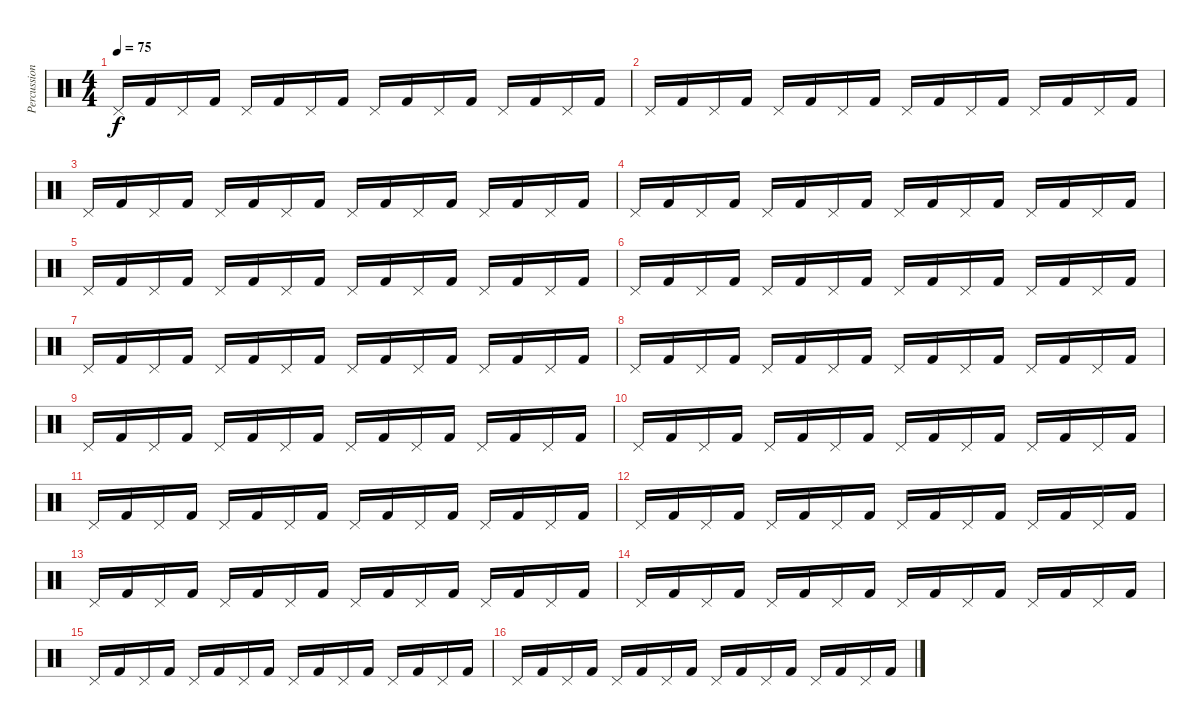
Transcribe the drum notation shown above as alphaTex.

\track ("Percussions" "Percussion") {instrument percussion}
\staff {score}
\articulation defaults
\ts (4 4)
\tempo 75
\clef neutral
\ks c "Pedal Hi-Hat (hit)".16{dy f} "Kick (hit) 2".16 "Pedal Hi-Hat (hit)".16 "Kick (hit) 2".16 "Pedal Hi-Hat (hit)".16 "Kick (hit) 2".16 "Pedal Hi-Hat (hit)".16 "Kick (hit) 2".16 "Pedal Hi-Hat (hit)".16 "Kick (hit) 2".16 "Pedal Hi-Hat (hit)".16 "Kick (hit) 2".16 "Pedal Hi-Hat (hit)".16 "Kick (hit) 2".16 "Pedal Hi-Hat (hit)".16 "Kick (hit) 2".16
|
"Pedal Hi-Hat (hit)".16 "Kick (hit) 2".16 "Pedal Hi-Hat (hit)".16 "Kick (hit) 2".16 "Pedal Hi-Hat (hit)".16 "Kick (hit) 2".16 "Pedal Hi-Hat (hit)".16 "Kick (hit) 2".16 "Pedal Hi-Hat (hit)".16 "Kick (hit) 2".16 "Pedal Hi-Hat (hit)".16 "Kick (hit) 2".16 "Pedal Hi-Hat (hit)".16 "Kick (hit) 2".16 "Pedal Hi-Hat (hit)".16 "Kick (hit) 2".16 |
"Pedal Hi-Hat (hit)".16 "Kick (hit) 2".16 "Pedal Hi-Hat (hit)".16 "Kick (hit) 2".16 "Pedal Hi-Hat (hit)".16 "Kick (hit) 2".16 "Pedal Hi-Hat (hit)".16 "Kick (hit) 2".16 "Pedal Hi-Hat (hit)".16 "Kick (hit) 2".16 "Pedal Hi-Hat (hit)".16 "Kick (hit) 2".16 "Pedal Hi-Hat (hit)".16 "Kick (hit) 2".16 "Pedal Hi-Hat (hit)".16 "Kick (hit) 2".16 |
"Pedal Hi-Hat (hit)".16 "Kick (hit) 2".16 "Pedal Hi-Hat (hit)".16 "Kick (hit) 2".16 "Pedal Hi-Hat (hit)".16 "Kick (hit) 2".16 "Pedal Hi-Hat (hit)".16 "Kick (hit) 2".16 "Pedal Hi-Hat (hit)".16 "Kick (hit) 2".16 "Pedal Hi-Hat (hit)".16 "Kick (hit) 2".16 "Pedal Hi-Hat (hit)".16 "Kick (hit) 2".16 "Pedal Hi-Hat (hit)".16 "Kick (hit) 2".16 |
"Pedal Hi-Hat (hit)".16 "Kick (hit) 2".16 "Pedal Hi-Hat (hit)".16 "Kick (hit) 2".16 "Pedal Hi-Hat (hit)".16 "Kick (hit) 2".16 "Pedal Hi-Hat (hit)".16 "Kick (hit) 2".16 "Pedal Hi-Hat (hit)".16 "Kick (hit) 2".16 "Pedal Hi-Hat (hit)".16 "Kick (hit) 2".16 "Pedal Hi-Hat (hit)".16 "Kick (hit) 2".16 "Pedal Hi-Hat (hit)".16 "Kick (hit) 2".16 |
"Pedal Hi-Hat (hit)".16 "Kick (hit) 2".16 "Pedal Hi-Hat (hit)".16 "Kick (hit) 2".16 "Pedal Hi-Hat (hit)".16 "Kick (hit) 2".16 "Pedal Hi-Hat (hit)".16 "Kick (hit) 2".16 "Pedal Hi-Hat (hit)".16 "Kick (hit) 2".16 "Pedal Hi-Hat (hit)".16 "Kick (hit) 2".16 "Pedal Hi-Hat (hit)".16 "Kick (hit) 2".16 "Pedal Hi-Hat (hit)".16 "Kick (hit) 2".16 |
"Pedal Hi-Hat (hit)".16 "Kick (hit) 2".16 "Pedal Hi-Hat (hit)".16 "Kick (hit) 2".16 "Pedal Hi-Hat (hit)".16 "Kick (hit) 2".16 "Pedal Hi-Hat (hit)".16 "Kick (hit) 2".16 "Pedal Hi-Hat (hit)".16 "Kick (hit) 2".16 "Pedal Hi-Hat (hit)".16 "Kick (hit) 2".16 "Pedal Hi-Hat (hit)".16 "Kick (hit) 2".16 "Pedal Hi-Hat (hit)".16 "Kick (hit) 2".16 |
"Pedal Hi-Hat (hit)".16 "Kick (hit) 2".16 "Pedal Hi-Hat (hit)".16 "Kick (hit) 2".16 "Pedal Hi-Hat (hit)".16 "Kick (hit) 2".16 "Pedal Hi-Hat (hit)".16 "Kick (hit) 2".16 "Pedal Hi-Hat (hit)".16 "Kick (hit) 2".16 "Pedal Hi-Hat (hit)".16 "Kick (hit) 2".16 "Pedal Hi-Hat (hit)".16 "Kick (hit) 2".16 "Pedal Hi-Hat (hit)".16 "Kick (hit) 2".16 |
"Pedal Hi-Hat (hit)".16 "Kick (hit) 2".16 "Pedal Hi-Hat (hit)".16 "Kick (hit) 2".16 "Pedal Hi-Hat (hit)".16 "Kick (hit) 2".16 "Pedal Hi-Hat (hit)".16 "Kick (hit) 2".16 "Pedal Hi-Hat (hit)".16 "Kick (hit) 2".16 "Pedal Hi-Hat (hit)".16 "Kick (hit) 2".16 "Pedal Hi-Hat (hit)".16 "Kick (hit) 2".16 "Pedal Hi-Hat (hit)".16 "Kick (hit) 2".16 |
"Pedal Hi-Hat (hit)".16 "Kick (hit) 2".16 "Pedal Hi-Hat (hit)".16 "Kick (hit) 2".16 "Pedal Hi-Hat (hit)".16 "Kick (hit) 2".16 "Pedal Hi-Hat (hit)".16 "Kick (hit) 2".16 "Pedal Hi-Hat (hit)".16 "Kick (hit) 2".16 "Pedal Hi-Hat (hit)".16 "Kick (hit) 2".16 "Pedal Hi-Hat (hit)".16 "Kick (hit) 2".16 "Pedal Hi-Hat (hit)".16 "Kick (hit) 2".16 |
"Pedal Hi-Hat (hit)".16 "Kick (hit) 2".16 "Pedal Hi-Hat (hit)".16 "Kick (hit) 2".16 "Pedal Hi-Hat (hit)".16 "Kick (hit) 2".16 "Pedal Hi-Hat (hit)".16 "Kick (hit) 2".16 "Pedal Hi-Hat (hit)".16 "Kick (hit) 2".16 "Pedal Hi-Hat (hit)".16 "Kick (hit) 2".16 "Pedal Hi-Hat (hit)".16 "Kick (hit) 2".16 "Pedal Hi-Hat (hit)".16 "Kick (hit) 2".16 |
"Pedal Hi-Hat (hit)".16 "Kick (hit) 2".16 "Pedal Hi-Hat (hit)".16 "Kick (hit) 2".16 "Pedal Hi-Hat (hit)".16 "Kick (hit) 2".16 "Pedal Hi-Hat (hit)".16 "Kick (hit) 2".16 "Pedal Hi-Hat (hit)".16 "Kick (hit) 2".16 "Pedal Hi-Hat (hit)".16 "Kick (hit) 2".16 "Pedal Hi-Hat (hit)".16 "Kick (hit) 2".16 "Pedal Hi-Hat (hit)".16 "Kick (hit) 2".16 |
"Pedal Hi-Hat (hit)".16 "Kick (hit) 2".16 "Pedal Hi-Hat (hit)".16 "Kick (hit) 2".16 "Pedal Hi-Hat (hit)".16 "Kick (hit) 2".16 "Pedal Hi-Hat (hit)".16 "Kick (hit) 2".16 "Pedal Hi-Hat (hit)".16 "Kick (hit) 2".16 "Pedal Hi-Hat (hit)".16 "Kick (hit) 2".16 "Pedal Hi-Hat (hit)".16 "Kick (hit) 2".16 "Pedal Hi-Hat (hit)".16 "Kick (hit) 2".16 |
"Pedal Hi-Hat (hit)".16 "Kick (hit) 2".16 "Pedal Hi-Hat (hit)".16 "Kick (hit) 2".16 "Pedal Hi-Hat (hit)".16 "Kick (hit) 2".16 "Pedal Hi-Hat (hit)".16 "Kick (hit) 2".16 "Pedal Hi-Hat (hit)".16 "Kick (hit) 2".16 "Pedal Hi-Hat (hit)".16 "Kick (hit) 2".16 "Pedal Hi-Hat (hit)".16 "Kick (hit) 2".16 "Pedal Hi-Hat (hit)".16 "Kick (hit) 2".16 |
"Pedal Hi-Hat (hit)".16 "Kick (hit) 2".16 "Pedal Hi-Hat (hit)".16 "Kick (hit) 2".16 "Pedal Hi-Hat (hit)".16 "Kick (hit) 2".16 "Pedal Hi-Hat (hit)".16 "Kick (hit) 2".16 "Pedal Hi-Hat (hit)".16 "Kick (hit) 2".16 "Pedal Hi-Hat (hit)".16 "Kick (hit) 2".16 "Pedal Hi-Hat (hit)".16 "Kick (hit) 2".16 "Pedal Hi-Hat (hit)".16 "Kick (hit) 2".16 |
"Pedal Hi-Hat (hit)".16 "Kick (hit) 2".16 "Pedal Hi-Hat (hit)".16 "Kick (hit) 2".16 "Pedal Hi-Hat (hit)".16 "Kick (hit) 2".16 "Pedal Hi-Hat (hit)".16 "Kick (hit) 2".16 "Pedal Hi-Hat (hit)".16 "Kick (hit) 2".16 "Pedal Hi-Hat (hit)".16 "Kick (hit) 2".16 "Pedal Hi-Hat (hit)".16 "Kick (hit) 2".16 "Pedal Hi-Hat (hit)".16 "Kick (hit) 2".16
